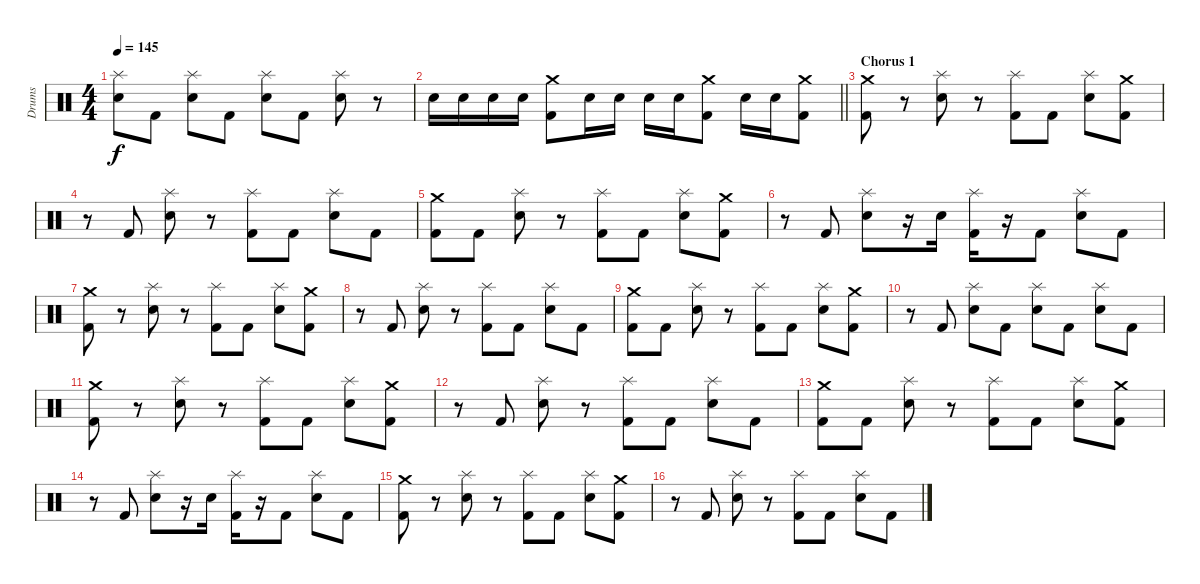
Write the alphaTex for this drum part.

\track ("Drums" "Drums") {instrument percussion}
\staff {score}
\articulation defaults
\ts (4 4)
\tempo 145
\clef neutral
\ks c
("Splash (hit)" "Snare (hit) 2").8{dy f} "Kick (hit) 2".8 ("Splash (hit)" "Snare (hit) 2").8 "Kick (hit) 2".8 ("Splash (hit)" "Snare (hit) 2").8 "Kick (hit) 2".8 ("Splash (hit)" "Snare (hit) 2").8 r.8 |
\barLineRight lightlight "Snare (hit) 2".16 "Snare (hit) 2".16 "Snare (hit) 2".16 "Snare (hit) 2".16
("Crash medium (hit)" "Kick (hit) 2").8 "Snare (hit) 2".16 "Snare (hit) 2".16 "Snare (hit) 2".16 "Snare (hit) 2".16 ("Crash medium (hit)" "Kick (hit) 2").8 "Snare (hit) 2".16 "Snare (hit) 2".16 ("Kick (hit) 2" "Crash medium (hit)").8 |
\section ("" "Chorus 1")
("Crash medium (hit)" "Kick (hit) 2").8 r.8 ("Splash (hit)" "Snare (hit) 2").8 r.8 ("Splash (hit)" "Kick (hit) 2").8 "Kick (hit) 2".8 ("Splash (hit)" "Snare (hit) 2").8 ("Kick (hit) 2" "Crash medium (hit)").8 |
r.8 "Kick (hit) 2".8 ("Splash (hit)" "Snare (hit) 2").8 r.8 ("Splash (hit)" "Kick (hit) 2").8 "Kick (hit) 2".8 ("Splash (hit)" "Snare (hit) 2").8 "Kick (hit) 2".8 |
("Crash medium (hit)" "Kick (hit) 2").8 "Kick (hit) 2".8 ("Snare (hit) 2" "Splash (hit)").8 r.8 ("Splash (hit)" "Kick (hit) 2").8 "Kick (hit) 2".8 ("Splash (hit)" "Snare (hit) 2").8 ("Kick (hit) 2" "Crash medium (hit)").8 |
r.8 "Kick (hit) 2".8 ("Splash (hit)" "Snare (hit) 2").8 r.16 "Snare (hit) 2".16 ("Splash (hit)" "Kick (hit) 2").16 r.16 "Kick (hit) 2".8 ("Splash (hit)" "Snare (hit) 2").8 "Kick (hit) 2".8 |
("Crash medium (hit)" "Kick (hit) 2").8 r.8 ("Splash (hit)" "Snare (hit) 2").8 r.8 ("Splash (hit)" "Kick (hit) 2").8 "Kick (hit) 2".8 ("Splash (hit)" "Snare (hit) 2").8 ("Kick (hit) 2" "Crash medium (hit)").8 |
r.8 "Kick (hit) 2".8 ("Splash (hit)" "Snare (hit) 2").8 r.8 ("Splash (hit)" "Kick (hit) 2").8 "Kick (hit) 2".8 ("Splash (hit)" "Snare (hit) 2").8 "Kick (hit) 2".8 |
("Crash medium (hit)" "Kick (hit) 2").8 "Kick (hit) 2".8 ("Snare (hit) 2" "Splash (hit)").8 r.8 ("Splash (hit)" "Kick (hit) 2").8 "Kick (hit) 2".8 ("Splash (hit)" "Snare (hit) 2").8 ("Kick (hit) 2" "Crash medium (hit)").8 |
r.8 "Kick (hit) 2".8 ("Snare (hit) 2" "Splash (hit)").8 "Kick (hit) 2".8 ("Splash (hit)" "Snare (hit) 2").8 "Kick (hit) 2".8 ("Splash (hit)" "Snare (hit) 2").8 "Kick (hit) 2".8 |
("Crash medium (hit)" "Kick (hit) 2").8 r.8 ("Splash (hit)" "Snare (hit) 2").8 r.8 ("Splash (hit)" "Kick (hit) 2").8 "Kick (hit) 2".8 ("Splash (hit)" "Snare (hit) 2").8 ("Kick (hit) 2" "Crash medium (hit)").8 |
r.8 "Kick (hit) 2".8 ("Splash (hit)" "Snare (hit) 2").8 r.8 ("Splash (hit)" "Kick (hit) 2").8 "Kick (hit) 2".8 ("Splash (hit)" "Snare (hit) 2").8 "Kick (hit) 2".8 |
("Crash medium (hit)" "Kick (hit) 2").8 "Kick (hit) 2".8 ("Snare (hit) 2" "Splash (hit)").8 r.8 ("Splash (hit)" "Kick (hit) 2").8 "Kick (hit) 2".8 ("Splash (hit)" "Snare (hit) 2").8 ("Kick (hit) 2" "Crash medium (hit)").8 |
r.8 "Kick (hit) 2".8 ("Splash (hit)" "Snare (hit) 2").8 r.16 "Snare (hit) 2".16 ("Splash (hit)" "Kick (hit) 2").16 r.16 "Kick (hit) 2".8 ("Splash (hit)" "Snare (hit) 2").8 "Kick (hit) 2".8 |
("Crash medium (hit)" "Kick (hit) 2").8 r.8 ("Splash (hit)" "Snare (hit) 2").8 r.8 ("Splash (hit)" "Kick (hit) 2").8 "Kick (hit) 2".8 ("Splash (hit)" "Snare (hit) 2").8 ("Kick (hit) 2" "Crash medium (hit)").8 |
r.8 "Kick (hit) 2".8 ("Splash (hit)" "Snare (hit) 2").8 r.8 ("Splash (hit)" "Kick (hit) 2").8 "Kick (hit) 2".8 ("Splash (hit)" "Snare (hit) 2").8 "Kick (hit) 2".8
